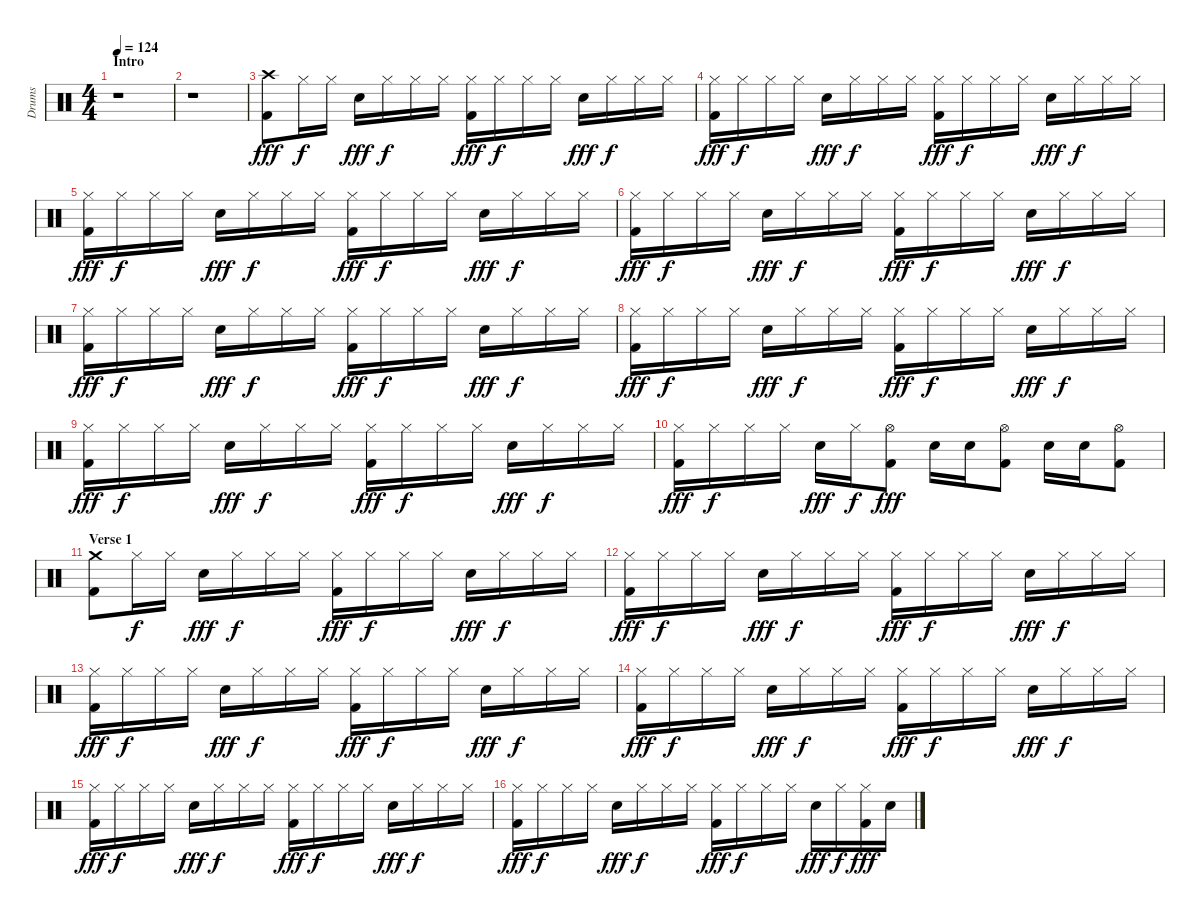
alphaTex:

\track ("Drums" "Drums") {instrument percussion}
\staff {score}
\articulation defaults
\ts (4 4)
\section ("" "Intro")
\tempo 124
\clef neutral
\ks c
r.1{dy fff} |
r.1 |
("Crash high (hit)" "Kick (hit) 2").8 "Hi-Hat (closed)".16{dy f} "Hi-Hat (closed)".16 "Electric Snare (hit)".16{dy fff} "Hi-Hat (closed)".16{dy f} "Hi-Hat (closed)".16 "Hi-Hat (closed)".16 ("Hi-Hat (closed)" "Kick (hit) 2").16{dy fff} "Hi-Hat (closed)".16{dy f} "Hi-Hat (closed)".16 "Hi-Hat (closed)".16 "Electric Snare (hit)".16{dy fff} "Hi-Hat (closed)".16{dy f} "Hi-Hat (closed)".16 "Hi-Hat (closed)".16 |
("Hi-Hat (closed)" "Kick (hit) 2").16{dy fff} "Hi-Hat (closed)".16{dy f} "Hi-Hat (closed)".16 "Hi-Hat (closed)".16 "Electric Snare (hit)".16{dy fff} "Hi-Hat (closed)".16{dy f} "Hi-Hat (closed)".16 "Hi-Hat (closed)".16 ("Hi-Hat (closed)" "Kick (hit) 2").16{dy fff} "Hi-Hat (closed)".16{dy f} "Hi-Hat (closed)".16 "Hi-Hat (closed)".16 "Electric Snare (hit)".16{dy fff} "Hi-Hat (closed)".16{dy f} "Hi-Hat (closed)".16 "Hi-Hat (closed)".16 |
("Hi-Hat (closed)" "Kick (hit) 2").16{dy fff} "Hi-Hat (closed)".16{dy f} "Hi-Hat (closed)".16 "Hi-Hat (closed)".16 "Electric Snare (hit)".16{dy fff} "Hi-Hat (closed)".16{dy f} "Hi-Hat (closed)".16 "Hi-Hat (closed)".16 ("Hi-Hat (closed)" "Kick (hit) 2").16{dy fff} "Hi-Hat (closed)".16{dy f} "Hi-Hat (closed)".16 "Hi-Hat (closed)".16 "Electric Snare (hit)".16{dy fff} "Hi-Hat (closed)".16{dy f} "Hi-Hat (closed)".16 "Hi-Hat (closed)".16 |
("Hi-Hat (closed)" "Kick (hit) 2").16{dy fff} "Hi-Hat (closed)".16{dy f} "Hi-Hat (closed)".16 "Hi-Hat (closed)".16 "Electric Snare (hit)".16{dy fff} "Hi-Hat (closed)".16{dy f} "Hi-Hat (closed)".16 "Hi-Hat (closed)".16 ("Hi-Hat (closed)" "Kick (hit) 2").16{dy fff} "Hi-Hat (closed)".16{dy f} "Hi-Hat (closed)".16 "Hi-Hat (closed)".16 "Electric Snare (hit)".16{dy fff} "Hi-Hat (closed)".16{dy f} "Hi-Hat (closed)".16 "Hi-Hat (closed)".16 |
("Hi-Hat (closed)" "Kick (hit) 2").16{dy fff} "Hi-Hat (closed)".16{dy f} "Hi-Hat (closed)".16 "Hi-Hat (closed)".16 "Electric Snare (hit)".16{dy fff} "Hi-Hat (closed)".16{dy f} "Hi-Hat (closed)".16 "Hi-Hat (closed)".16 ("Hi-Hat (closed)" "Kick (hit) 2").16{dy fff} "Hi-Hat (closed)".16{dy f} "Hi-Hat (closed)".16 "Hi-Hat (closed)".16 "Electric Snare (hit)".16{dy fff} "Hi-Hat (closed)".16{dy f} "Hi-Hat (closed)".16 "Hi-Hat (closed)".16 |
("Hi-Hat (closed)" "Kick (hit) 2").16{dy fff} "Hi-Hat (closed)".16{dy f} "Hi-Hat (closed)".16 "Hi-Hat (closed)".16 "Electric Snare (hit)".16{dy fff} "Hi-Hat (closed)".16{dy f} "Hi-Hat (closed)".16 "Hi-Hat (closed)".16 ("Hi-Hat (closed)" "Kick (hit) 2").16{dy fff} "Hi-Hat (closed)".16{dy f} "Hi-Hat (closed)".16 "Hi-Hat (closed)".16 "Electric Snare (hit)".16{dy fff} "Hi-Hat (closed)".16{dy f} "Hi-Hat (closed)".16 "Hi-Hat (closed)".16 |
("Hi-Hat (closed)" "Kick (hit) 2").16{dy fff} "Hi-Hat (closed)".16{dy f} "Hi-Hat (closed)".16 "Hi-Hat (closed)".16 "Electric Snare (hit)".16{dy fff} "Hi-Hat (closed)".16{dy f} "Hi-Hat (closed)".16 "Hi-Hat (closed)".16 ("Hi-Hat (closed)" "Kick (hit) 2").16{dy fff} "Hi-Hat (closed)".16{dy f} "Hi-Hat (closed)".16 "Hi-Hat (closed)".16 "Electric Snare (hit)".16{dy fff} "Hi-Hat (closed)".16{dy f} "Hi-Hat (closed)".16 "Hi-Hat (closed)".16 |
("Hi-Hat (closed)" "Kick (hit) 2").16{dy fff} "Hi-Hat (closed)".16{dy f} "Hi-Hat (closed)".16 "Hi-Hat (closed)".16 "Electric Snare (hit)".16{dy fff} "Hi-Hat (closed)".16{dy f} ("Hi-Hat (open)" "Kick (hit) 2").8{dy fff} "Electric Snare (hit)".16 "Electric Snare (hit)".16 ("Hi-Hat (open)" "Kick (hit) 2").8 "Electric Snare (hit)".16 "Electric Snare (hit)".16 ("Hi-Hat (open)" "Kick (hit) 2").8 |
\section ("" "Verse 1")
("Crash medium (hit)" "Kick (hit) 2").8 "Hi-Hat (closed)".16{dy f} "Hi-Hat (closed)".16 "Electric Snare (hit)".16{dy fff} "Hi-Hat (closed)".16{dy f} "Hi-Hat (closed)".16 "Hi-Hat (closed)".16 ("Hi-Hat (closed)" "Kick (hit) 2").16{dy fff} "Hi-Hat (closed)".16{dy f} "Hi-Hat (closed)".16 "Hi-Hat (closed)".16 "Electric Snare (hit)".16{dy fff} "Hi-Hat (closed)".16{dy f} "Hi-Hat (closed)".16 "Hi-Hat (closed)".16 |
("Hi-Hat (closed)" "Kick (hit) 2").16{dy fff} "Hi-Hat (closed)".16{dy f} "Hi-Hat (closed)".16 "Hi-Hat (closed)".16 "Electric Snare (hit)".16{dy fff} "Hi-Hat (closed)".16{dy f} "Hi-Hat (closed)".16 "Hi-Hat (closed)".16 ("Hi-Hat (closed)" "Kick (hit) 2").16{dy fff} "Hi-Hat (closed)".16{dy f} "Hi-Hat (closed)".16 "Hi-Hat (closed)".16 "Electric Snare (hit)".16{dy fff} "Hi-Hat (closed)".16{dy f} "Hi-Hat (closed)".16 "Hi-Hat (closed)".16 |
("Hi-Hat (closed)" "Kick (hit) 2").16{dy fff} "Hi-Hat (closed)".16{dy f} "Hi-Hat (closed)".16 "Hi-Hat (closed)".16 "Electric Snare (hit)".16{dy fff} "Hi-Hat (closed)".16{dy f} "Hi-Hat (closed)".16 "Hi-Hat (closed)".16 ("Hi-Hat (closed)" "Kick (hit) 2").16{dy fff} "Hi-Hat (closed)".16{dy f} "Hi-Hat (closed)".16 "Hi-Hat (closed)".16 "Electric Snare (hit)".16{dy fff} "Hi-Hat (closed)".16{dy f} "Hi-Hat (closed)".16 "Hi-Hat (closed)".16 |
("Hi-Hat (closed)" "Kick (hit) 2").16{dy fff} "Hi-Hat (closed)".16{dy f} "Hi-Hat (closed)".16 "Hi-Hat (closed)".16 "Electric Snare (hit)".16{dy fff} "Hi-Hat (closed)".16{dy f} "Hi-Hat (closed)".16 "Hi-Hat (closed)".16 ("Hi-Hat (closed)" "Kick (hit) 2").16{dy fff} "Hi-Hat (closed)".16{dy f} "Hi-Hat (closed)".16 "Hi-Hat (closed)".16 "Electric Snare (hit)".16{dy fff} "Hi-Hat (closed)".16{dy f} "Hi-Hat (closed)".16 "Hi-Hat (closed)".16 |
("Hi-Hat (closed)" "Kick (hit) 2").16{dy fff} "Hi-Hat (closed)".16{dy f} "Hi-Hat (closed)".16 "Hi-Hat (closed)".16 "Electric Snare (hit)".16{dy fff} "Hi-Hat (closed)".16{dy f} "Hi-Hat (closed)".16 "Hi-Hat (closed)".16 ("Hi-Hat (closed)" "Kick (hit) 2").16{dy fff} "Hi-Hat (closed)".16{dy f} "Hi-Hat (closed)".16 "Hi-Hat (closed)".16 "Electric Snare (hit)".16{dy fff} "Hi-Hat (closed)".16{dy f} "Hi-Hat (closed)".16 "Hi-Hat (closed)".16 |
("Hi-Hat (closed)" "Kick (hit) 2").16{dy fff} "Hi-Hat (closed)".16{dy f} "Hi-Hat (closed)".16 "Hi-Hat (closed)".16 "Electric Snare (hit)".16{dy fff} "Hi-Hat (closed)".16{dy f} "Hi-Hat (closed)".16 "Hi-Hat (closed)".16 ("Hi-Hat (closed)" "Kick (hit) 2").16{dy fff} "Hi-Hat (closed)".16{dy f} "Hi-Hat (closed)".16 "Hi-Hat (closed)".16 "Electric Snare (hit)".16{dy fff} "Hi-Hat (closed)".16{dy f} ("Hi-Hat (closed)" "Kick (hit) 2").16{dy fff} "Electric Snare (hit)".16
